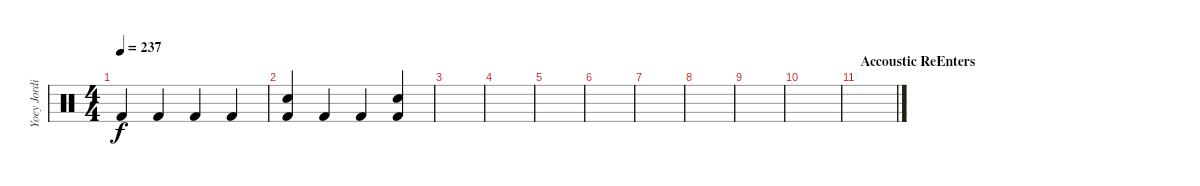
\track ("Yoey Jordison" "Yoey Jordi") {instrument percussion}
\staff {score}
\articulation defaults
\ts (4 4)
\tempo 237
\clef neutral
\ks c "Kick (hit) 2".4{dy f} "Kick (hit) 2".4 "Kick (hit) 2".4 "Kick (hit) 2".4
|
("Kick (hit) 2" "Snare (hit) 2").4 "Kick (hit) 2".4 "Kick (hit) 2".4 ("Kick (hit) 2" "Snare (hit) 2").4 |
|
|
|
|
|
|
|
|
\section ("" "Accoustic ReEnters")
